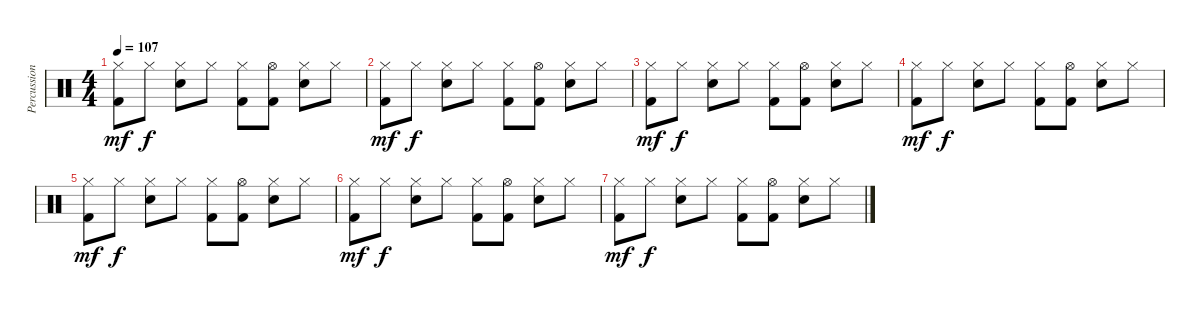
\track ("Percussion" "Percussion") {instrument percussion}
\staff {score}
\articulation defaults
\ts (4 4)
\tempo 107
\clef neutral
\ks c
("Hi-Hat (closed)" "Kick (hit) 2").8{dy mf} "Hi-Hat (closed)".8{dy f} ("Hi-Hat (closed)" "Snare (hit) 2").8 "Hi-Hat (closed)".8 ("Hi-Hat (closed)" "Kick (hit) 2").8 ("Hi-Hat (open)" "Kick (hit) 2").8 ("Hi-Hat (closed)" "Snare (hit) 2").8 "Hi-Hat (closed)".8 |
("Hi-Hat (closed)" "Kick (hit) 2").8{dy mf} "Hi-Hat (closed)".8{dy f} ("Hi-Hat (closed)" "Snare (hit) 2").8 "Hi-Hat (closed)".8 ("Hi-Hat (closed)" "Kick (hit) 2").8 ("Hi-Hat (open)" "Kick (hit) 2").8 ("Hi-Hat (closed)" "Snare (hit) 2").8 "Hi-Hat (closed)".8 |
("Hi-Hat (closed)" "Kick (hit) 2").8{dy mf} "Hi-Hat (closed)".8{dy f} ("Hi-Hat (closed)" "Snare (hit) 2").8 "Hi-Hat (closed)".8 ("Hi-Hat (closed)" "Kick (hit) 2").8 ("Hi-Hat (open)" "Kick (hit) 2").8 ("Hi-Hat (closed)" "Snare (hit) 2").8 "Hi-Hat (closed)".8 |
("Hi-Hat (closed)" "Kick (hit) 2").8{dy mf} "Hi-Hat (closed)".8{dy f} ("Hi-Hat (closed)" "Snare (hit) 2").8 "Hi-Hat (closed)".8 ("Hi-Hat (closed)" "Kick (hit) 2").8 ("Hi-Hat (open)" "Kick (hit) 2").8 ("Hi-Hat (closed)" "Snare (hit) 2").8 "Hi-Hat (closed)".8 |
("Hi-Hat (closed)" "Kick (hit) 2").8{dy mf} "Hi-Hat (closed)".8{dy f} ("Hi-Hat (closed)" "Snare (hit) 2").8 "Hi-Hat (closed)".8 ("Hi-Hat (closed)" "Kick (hit) 2").8 ("Hi-Hat (open)" "Kick (hit) 2").8 ("Hi-Hat (closed)" "Snare (hit) 2").8 "Hi-Hat (closed)".8 |
("Hi-Hat (closed)" "Kick (hit) 2").8{dy mf} "Hi-Hat (closed)".8{dy f} ("Hi-Hat (closed)" "Snare (hit) 2").8 "Hi-Hat (closed)".8 ("Hi-Hat (closed)" "Kick (hit) 2").8 ("Hi-Hat (open)" "Kick (hit) 2").8 ("Hi-Hat (closed)" "Snare (hit) 2").8 "Hi-Hat (closed)".8 |
("Hi-Hat (closed)" "Kick (hit) 2").8{dy mf} "Hi-Hat (closed)".8{dy f} ("Hi-Hat (closed)" "Snare (hit) 2").8 "Hi-Hat (closed)".8 ("Hi-Hat (closed)" "Kick (hit) 2").8 ("Hi-Hat (open)" "Kick (hit) 2").8 ("Hi-Hat (closed)" "Snare (hit) 2").8 "Hi-Hat (closed)".8
